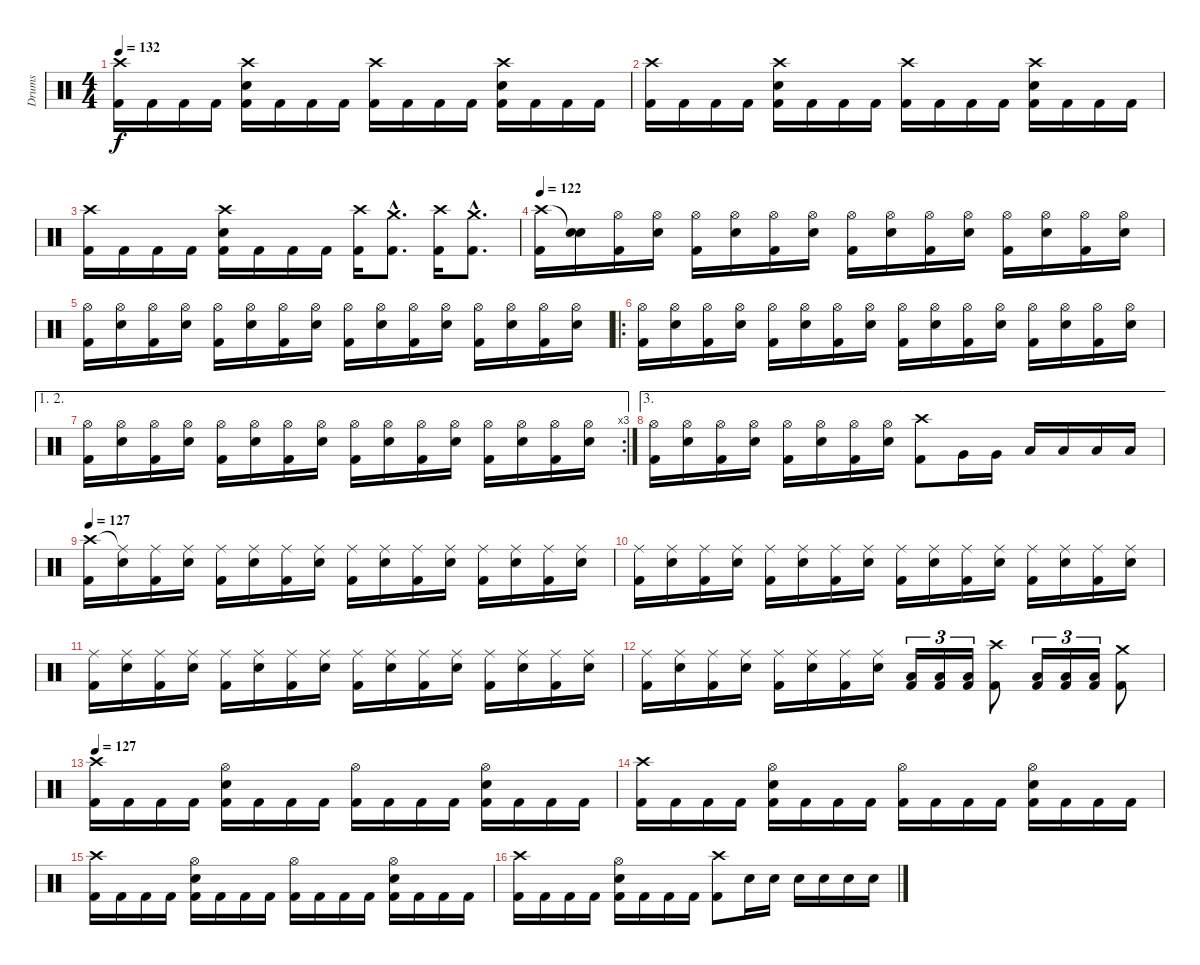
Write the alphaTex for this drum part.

\track ("Drums" "Drums") {instrument percussion}
\staff {score}
\articulation defaults
\ts (4 4)
\tempo 132
\clef neutral
\ks c
("Crash high (hit)" "Kick (hit) 2").16{dy f} "Kick (hit) 2".16 "Kick (hit) 2".16 "Kick (hit) 2".16 ("Crash high (hit)" "Snare (hit) 2" "Kick (hit) 2").16 "Kick (hit) 2".16 "Kick (hit) 2".16 "Kick (hit) 2".16 ("Crash high (hit)" "Kick (hit) 2").16 "Kick (hit) 2".16 "Kick (hit) 2".16 "Kick (hit) 2".16 ("Crash high (hit)" "Snare (hit) 2" "Kick (hit) 2").16 "Kick (hit) 2".16 "Kick (hit) 2".16 "Kick (hit) 2".16 |
("Crash high (hit)" "Kick (hit) 2").16 "Kick (hit) 2".16 "Kick (hit) 2".16 "Kick (hit) 2".16 ("Crash high (hit)" "Snare (hit) 2" "Kick (hit) 2").16 "Kick (hit) 2".16 "Kick (hit) 2".16 "Kick (hit) 2".16 ("Crash high (hit)" "Kick (hit) 2").16 "Kick (hit) 2".16 "Kick (hit) 2".16 "Kick (hit) 2".16 ("Crash high (hit)" "Snare (hit) 2" "Kick (hit) 2").16 "Kick (hit) 2".16 "Kick (hit) 2".16 "Kick (hit) 2".16 |
("Crash high (hit)" "Kick (hit) 2").16 "Kick (hit) 2".16 "Kick (hit) 2".16 "Kick (hit) 2".16 ("Crash high (hit)" "Snare (hit) 2" "Kick (hit) 2").16 "Kick (hit) 2".16 "Kick (hit) 2".16 "Kick (hit) 2".16 ("Crash high (hit)" "Kick (hit) 2").16 ("Crash medium (hit)"{hac} "Kick (hit) 2"{hac}).8{d} ("Crash high (hit)" "Kick (hit) 2").16 ("Crash medium (hit)"{hac} "Kick (hit) 2"{hac}).8{d} |
\tempo 122
("Crash high (hit)" "Kick (hit) 2").16 ("Snare (hit)"{t} "Snare (hit) 2").16 ("Hi-Hat (open)" "Kick (hit) 2").16 ("Hi-Hat (open)" "Snare (hit) 2").16 ("Hi-Hat (open)" "Kick (hit) 2").16 ("Hi-Hat (open)" "Snare (hit) 2").16 ("Hi-Hat (open)" "Kick (hit) 2").16 ("Hi-Hat (open)" "Snare (hit) 2").16 ("Hi-Hat (open)" "Kick (hit) 2").16 ("Hi-Hat (open)" "Snare (hit) 2").16 ("Hi-Hat (open)" "Kick (hit) 2").16 ("Hi-Hat (open)" "Snare (hit) 2").16 ("Hi-Hat (open)" "Kick (hit) 2").16 ("Hi-Hat (open)" "Snare (hit) 2").16 ("Hi-Hat (open)" "Kick (hit) 2").16 ("Hi-Hat (open)" "Snare (hit) 2").16 |
("Hi-Hat (open)" "Kick (hit) 2").16 ("Hi-Hat (open)" "Snare (hit) 2").16 ("Hi-Hat (open)" "Kick (hit) 2").16 ("Hi-Hat (open)" "Snare (hit) 2").16 ("Hi-Hat (open)" "Kick (hit) 2").16 ("Hi-Hat (open)" "Snare (hit) 2").16 ("Hi-Hat (open)" "Kick (hit) 2").16 ("Hi-Hat (open)" "Snare (hit) 2").16 ("Hi-Hat (open)" "Kick (hit) 2").16 ("Hi-Hat (open)" "Snare (hit) 2").16 ("Hi-Hat (open)" "Kick (hit) 2").16 ("Hi-Hat (open)" "Snare (hit) 2").16 ("Hi-Hat (open)" "Kick (hit) 2").16 ("Hi-Hat (open)" "Snare (hit) 2").16 ("Hi-Hat (open)" "Kick (hit) 2").16 ("Hi-Hat (open)" "Snare (hit) 2").16 |
\ro
("Hi-Hat (open)" "Kick (hit) 2").16 ("Hi-Hat (open)" "Snare (hit) 2").16 ("Hi-Hat (open)" "Kick (hit) 2").16 ("Hi-Hat (open)" "Snare (hit) 2").16 ("Hi-Hat (open)" "Kick (hit) 2").16 ("Hi-Hat (open)" "Snare (hit) 2").16 ("Hi-Hat (open)" "Kick (hit) 2").16 ("Hi-Hat (open)" "Snare (hit) 2").16 ("Hi-Hat (open)" "Kick (hit) 2").16 ("Hi-Hat (open)" "Snare (hit) 2").16 ("Hi-Hat (open)" "Kick (hit) 2").16 ("Hi-Hat (open)" "Snare (hit) 2").16 ("Hi-Hat (open)" "Kick (hit) 2").16 ("Hi-Hat (open)" "Snare (hit) 2").16 ("Hi-Hat (open)" "Kick (hit) 2").16 ("Hi-Hat (open)" "Snare (hit) 2").16 |
\ae (1 2)
\rc 3
("Hi-Hat (open)" "Kick (hit) 2").16 ("Hi-Hat (open)" "Snare (hit) 2").16 ("Hi-Hat (open)" "Kick (hit) 2").16 ("Hi-Hat (open)" "Snare (hit) 2").16 ("Hi-Hat (open)" "Kick (hit) 2").16 ("Hi-Hat (open)" "Snare (hit) 2").16 ("Hi-Hat (open)" "Kick (hit) 2").16 ("Hi-Hat (open)" "Snare (hit) 2").16 ("Hi-Hat (open)" "Kick (hit) 2").16 ("Hi-Hat (open)" "Snare (hit) 2").16 ("Hi-Hat (open)" "Kick (hit) 2").16 ("Hi-Hat (open)" "Snare (hit) 2").16 ("Hi-Hat (open)" "Kick (hit) 2").16 ("Hi-Hat (open)" "Snare (hit) 2").16 ("Hi-Hat (open)" "Kick (hit) 2").16 ("Hi-Hat (open)" "Snare (hit) 2").16 |
\ae 3
("Hi-Hat (open)" "Kick (hit) 2").16 ("Hi-Hat (open)" "Snare (hit) 2").16 ("Hi-Hat (open)" "Kick (hit) 2").16 ("Hi-Hat (open)" "Snare (hit) 2").16 ("Hi-Hat (open)" "Kick (hit) 2").16 ("Hi-Hat (open)" "Snare (hit) 2").16 ("Hi-Hat (open)" "Kick (hit) 2").16 ("Hi-Hat (open)" "Snare (hit) 2").16 ("Crash high (hit)" "Kick (hit) 2").8 "Very Low Tom (hit)".16 "Very Low Tom (hit)".16 "Low Floor Tom (hit)".16 "Low Floor Tom (hit)".16 "Low Floor Tom (hit)".16 "Low Floor Tom (hit)".16 |
\tempo 127
("Crash high (hit)" "Kick (hit) 2").16 ("Ride (middle)"{t} "Snare (hit) 2").16 ("Ride (middle)" "Kick (hit) 2").16 ("Ride (middle)" "Snare (hit) 2").16 ("Ride (middle)" "Kick (hit) 2").16 ("Ride (middle)" "Snare (hit) 2").16 ("Ride (middle)" "Kick (hit) 2").16 ("Ride (middle)" "Snare (hit) 2").16 ("Ride (middle)" "Kick (hit) 2").16 ("Ride (middle)" "Snare (hit) 2").16 ("Ride (middle)" "Kick (hit) 2").16 ("Ride (middle)" "Snare (hit) 2").16 ("Ride (middle)" "Kick (hit) 2").16 ("Ride (middle)" "Snare (hit) 2").16 ("Ride (middle)" "Kick (hit) 2").16 ("Ride (middle)" "Snare (hit) 2").16 |
("Ride (middle)" "Kick (hit) 2").16 ("Ride (middle)" "Snare (hit) 2").16 ("Ride (middle)" "Kick (hit) 2").16 ("Ride (middle)" "Snare (hit) 2").16 ("Ride (middle)" "Kick (hit) 2").16 ("Ride (middle)" "Snare (hit) 2").16 ("Ride (middle)" "Kick (hit) 2").16 ("Ride (middle)" "Snare (hit) 2").16 ("Ride (middle)" "Kick (hit) 2").16 ("Ride (middle)" "Snare (hit) 2").16 ("Ride (middle)" "Kick (hit) 2").16 ("Ride (middle)" "Snare (hit) 2").16 ("Ride (middle)" "Kick (hit) 2").16 ("Ride (middle)" "Snare (hit) 2").16 ("Ride (middle)" "Kick (hit) 2").16 ("Ride (middle)" "Snare (hit) 2").16 |
("Ride (middle)" "Kick (hit) 2").16 ("Ride (middle)" "Snare (hit) 2").16 ("Ride (middle)" "Kick (hit) 2").16 ("Ride (middle)" "Snare (hit) 2").16 ("Ride (middle)" "Kick (hit) 2").16 ("Ride (middle)" "Snare (hit) 2").16 ("Ride (middle)" "Kick (hit) 2").16 ("Ride (middle)" "Snare (hit) 2").16 ("Ride (middle)" "Kick (hit) 2").16 ("Ride (middle)" "Snare (hit) 2").16 ("Ride (middle)" "Kick (hit) 2").16 ("Ride (middle)" "Snare (hit) 2").16 ("Ride (middle)" "Kick (hit) 2").16 ("Ride (middle)" "Snare (hit) 2").16 ("Ride (middle)" "Kick (hit) 2").16 ("Ride (middle)" "Snare (hit) 2").16 |
("Ride (middle)" "Kick (hit) 2").16 ("Ride (middle)" "Snare (hit) 2").16 ("Ride (middle)" "Kick (hit) 2").16 ("Ride (middle)" "Snare (hit) 2").16 ("Ride (middle)" "Kick (hit) 2").16 ("Ride (middle)" "Snare (hit) 2").16 ("Ride (middle)" "Kick (hit) 2").16 ("Ride (middle)" "Snare (hit) 2").16 ("Low Tom (hit)" "Kick (hit) 2").16{tu (3 2)} ("Low Tom (hit)" "Kick (hit) 2").16{tu (3 2)} ("Low Tom (hit)" "Kick (hit) 2").16{tu (3 2)} ("Crash high (hit)" "Kick (hit) 2").8 ("Low Tom (hit)" "Kick (hit) 2").16{tu (3 2)} ("Low Tom (hit)" "Kick (hit) 2").16{tu (3 2)} ("Low Tom (hit)" "Kick (hit) 2").16{tu (3 2)} ("Crash medium (hit)" "Kick (hit) 2").8 |
\tempo 127
("Crash high (hit)" "Kick (hit) 2").16 "Kick (hit) 2".16 "Kick (hit) 2".16 "Kick (hit) 2".16 ("Hi-Hat (open)" "Snare (hit) 2" "Kick (hit) 2").16 "Kick (hit) 2".16 "Kick (hit) 2".16 "Kick (hit) 2".16 ("Hi-Hat (open)" "Kick (hit) 2").16 "Kick (hit) 2".16 "Kick (hit) 2".16 "Kick (hit) 2".16 ("Hi-Hat (open)" "Snare (hit) 2" "Kick (hit) 2").16 "Kick (hit) 2".16 "Kick (hit) 2".16 "Kick (hit) 2".16 |
("Crash high (hit)" "Kick (hit) 2").16 "Kick (hit) 2".16 "Kick (hit) 2".16 "Kick (hit) 2".16 ("Hi-Hat (open)" "Snare (hit) 2" "Kick (hit) 2").16 "Kick (hit) 2".16 "Kick (hit) 2".16 "Kick (hit) 2".16 ("Hi-Hat (open)" "Kick (hit) 2").16 "Kick (hit) 2".16 "Kick (hit) 2".16 "Kick (hit) 2".16 ("Hi-Hat (open)" "Snare (hit) 2" "Kick (hit) 2").16 "Kick (hit) 2".16 "Kick (hit) 2".16 "Kick (hit) 2".16 |
("Crash high (hit)" "Kick (hit) 2").16 "Kick (hit) 2".16 "Kick (hit) 2".16 "Kick (hit) 2".16 ("Hi-Hat (open)" "Snare (hit) 2" "Kick (hit) 2").16 "Kick (hit) 2".16 "Kick (hit) 2".16 "Kick (hit) 2".16 ("Hi-Hat (open)" "Kick (hit) 2").16 "Kick (hit) 2".16 "Kick (hit) 2".16 "Kick (hit) 2".16 ("Hi-Hat (open)" "Snare (hit) 2" "Kick (hit) 2").16 "Kick (hit) 2".16 "Kick (hit) 2".16 "Kick (hit) 2".16 |
("Crash high (hit)" "Kick (hit) 2").16 "Kick (hit) 2".16 "Kick (hit) 2".16 "Kick (hit) 2".16 ("Hi-Hat (open)" "Snare (hit) 2" "Kick (hit) 2").16 "Kick (hit) 2".16 "Kick (hit) 2".16 "Kick (hit) 2".16 ("Crash high (hit)" "Kick (hit) 2").8 "Snare (hit) 2".16 "Snare (hit) 2".16 "Snare (hit) 2".16 "Snare (hit) 2".16 "Snare (hit) 2".16 "Snare (hit) 2".16
